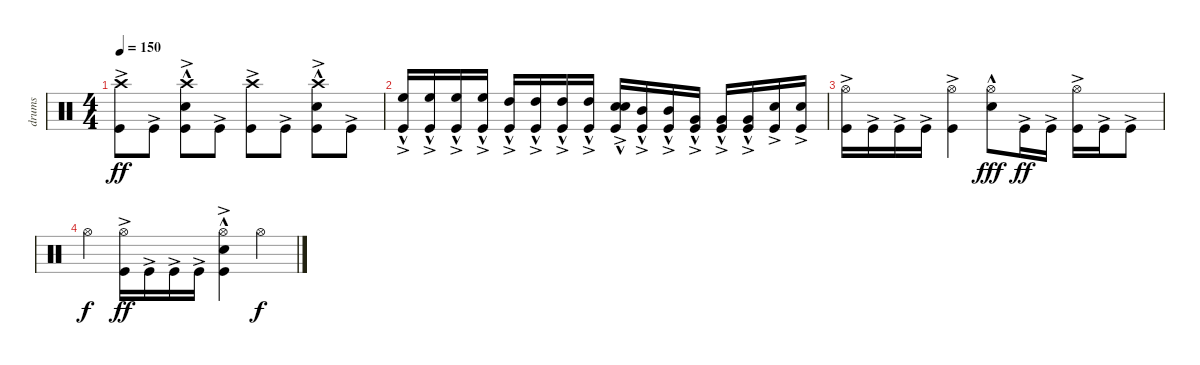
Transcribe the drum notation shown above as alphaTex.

\track ("drums" "drums") {instrument percussion}
\staff {score}
\articulation defaults
\ts (4 4)
\tempo 150
\clef neutral
\ks c
("Crash high (hit)" "Kick (hit)"{ac}).8{dy ff} "Kick (hit)"{ac}.8 ("Crash high (hit)" "Snare (hit) 2"{hac} "Kick (hit)"{ac}).8 "Kick (hit)"{ac}.8 ("Crash high (hit)" "Kick (hit)"{ac}).8 "Kick (hit)"{ac}.8 ("Crash high (hit)" "Snare (hit) 2"{hac} "Kick (hit)"{ac}).8 "Kick (hit)"{ac}.8 |
("High Floor Tom (hit)"{hac} "Kick (hit)"{ac}).16 ("High Floor Tom (hit)"{hac} "Kick (hit)"{ac}).16 ("High Floor Tom (hit)"{hac} "Kick (hit)"{ac}).16 ("High Floor Tom (hit)"{hac} "Kick (hit)"{ac}).16 ("High Tom (hit)"{hac} "Kick (hit)"{ac}).16 ("High Tom (hit)"{hac} "Kick (hit)"{ac}).16 ("High Tom (hit)"{hac} "Kick (hit)"{ac}).16 ("High Tom (hit)"{hac} "Kick (hit)"{ac}).16 ("Electric Snare (hit)"{ac} "Snare (hit) 2"{hac} "Kick (hit)"{ac}).16 ("Mid Tom (hit)"{hac} "Kick (hit)"{ac}).16 ("Mid Tom (hit)"{hac} "Kick (hit)"{ac}).16 ("Very Low Tom (hit)"{hac} "Kick (hit)"{ac}).16 ("Very Low Tom (hit)"{hac} "Kick (hit)"{ac}).16 ("Very Low Tom (hit)"{hac} "Kick (hit)"{ac}).16 ("Snare (hit) 2" "Kick (hit)"{ac}).16 ("Snare (hit) 2" "Kick (hit)"{ac}).16 |
("Hi-Hat (open)" "Kick (hit)"{ac}).16 "Kick (hit)"{ac}.16 "Kick (hit)"{ac}.16 "Kick (hit)"{ac}.16 ("Hi-Hat (open)" "Kick (hit)"{ac}).4 ("Hi-Hat (open)" "Snare (hit) 2"{hac}).8{dy fff} "Kick (hit)"{ac}.16{dy ff} "Kick (hit)"{ac}.16 ("Hi-Hat (open)" "Kick (hit)"{ac}).16 "Kick (hit)"{ac}.16 "Kick (hit)"{ac}.8 |
"Hi-Hat (open)".4{dy f} ("Hi-Hat (open)" "Kick (hit)"{ac}).16{dy ff} "Kick (hit)"{ac}.16 "Kick (hit)"{ac}.16 "Kick (hit)"{ac}.16 ("Hi-Hat (open)" "Snare (hit) 2"{hac} "Kick (hit)"{ac}).4 "Hi-Hat (open)".4{dy f}
